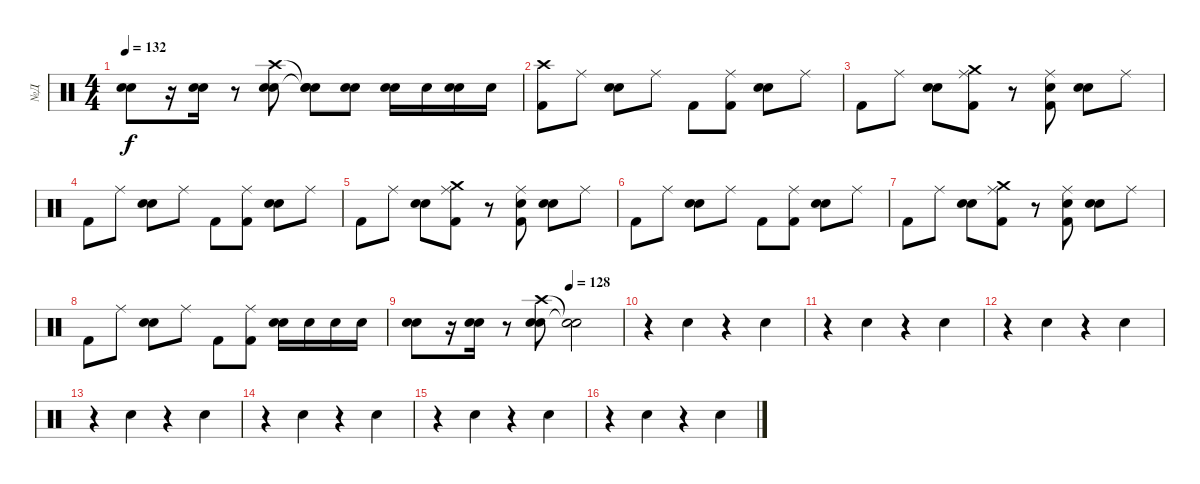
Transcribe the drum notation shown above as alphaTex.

\track ("№Д" "№Д") {instrument percussion}
\staff {score}
\articulation defaults
\ts (4 4)
\tempo 132
\clef neutral
\ks c
("Snare (hit) 2" "Electric Snare (hit)").8{dy f} r.16 ("Snare (hit) 2" "Electric Snare (hit)").16 r.8 ("Crash high (hit)" "Snare (hit) 2" "Electric Snare (hit)").8 ("Snare (hit)"{t} "Snare (hit)"{t} "Snare (hit) 2").8 ("Hand Clap (hit)" "Snare (hit) 2").8 ("Hand Clap (hit)" "Snare (hit) 2").16 "Snare (hit) 2".16 ("Hand Clap (hit)" "Snare (hit) 2").16 "Snare (hit) 2".16 |
("Crash high (hit)" "Kick (hit) 2").8 "Ride (middle)".8 ("Hand Clap (hit)" "Snare (hit) 2").8 "Ride (middle)".8 "Kick (hit) 2".8 ("Ride (middle)" "Kick (hit) 2").8 ("Hand Clap (hit)" "Snare (hit) 2").8 "Ride (middle)".8 |
"Kick (hit) 2".8 "Ride (middle)".8 ("Hand Clap (hit)" "Snare (hit) 2").8 ("Crash medium (hit)" "Ride (middle)" "Kick (hit) 2").8 r.8 ("Hand Clap (hit)" "Ride (middle)" "Kick (hit) 2").8 ("Hand Clap (hit)" "Snare (hit) 2").8 "Ride (middle)".8 |
"Kick (hit) 2".8 "Ride (middle)".8 ("Hand Clap (hit)" "Snare (hit) 2").8 "Ride (middle)".8 "Kick (hit) 2".8 ("Ride (middle)" "Kick (hit) 2").8 ("Hand Clap (hit)" "Snare (hit) 2").8 "Ride (middle)".8 |
"Kick (hit) 2".8 "Ride (middle)".8 ("Hand Clap (hit)" "Snare (hit) 2").8 ("Crash medium (hit)" "Ride (middle)" "Kick (hit) 2").8 r.8 ("Hand Clap (hit)" "Ride (middle)" "Kick (hit) 2").8 ("Hand Clap (hit)" "Snare (hit) 2").8 "Ride (middle)".8 |
"Kick (hit) 2".8 "Ride (middle)".8 ("Hand Clap (hit)" "Snare (hit) 2").8 "Ride (middle)".8 "Kick (hit) 2".8 ("Ride (middle)" "Kick (hit) 2").8 ("Hand Clap (hit)" "Snare (hit) 2").8 "Ride (middle)".8 |
"Kick (hit) 2".8 "Ride (middle)".8 ("Hand Clap (hit)" "Snare (hit) 2").8 ("Crash medium (hit)" "Ride (middle)" "Kick (hit) 2").8 r.8 ("Hand Clap (hit)" "Ride (middle)" "Kick (hit) 2").8 ("Hand Clap (hit)" "Snare (hit) 2").8 "Ride (middle)".8 |
"Kick (hit) 2".8 "Ride (middle)".8 ("Hand Clap (hit)" "Snare (hit) 2").8 "Ride (middle)".8 "Kick (hit) 2".8 ("Ride (middle)" "Kick (hit) 2").8 ("Hand Clap (hit)" "Snare (hit) 2").16 "Snare (hit) 2".16 "Snare (hit) 2".16 "Snare (hit) 2".16 |
\tempo (128 0.75)
("Snare (hit) 2" "Electric Snare (hit)").8 r.16 ("Snare (hit) 2" "Electric Snare (hit)").16 r.8 ("Crash high (hit)" "Snare (hit) 2" "Electric Snare (hit)").8 ("Snare (hit)"{t} "Snare (hit)"{t}).2 |
r.4 "Hand Clap (hit)".4 r.4 "Hand Clap (hit)".4 |
r.4 "Hand Clap (hit)".4 r.4 "Hand Clap (hit)".4 |
r.4 "Hand Clap (hit)".4 r.4 "Hand Clap (hit)".4 |
r.4 "Hand Clap (hit)".4 r.4 "Hand Clap (hit)".4 |
r.4 "Hand Clap (hit)".4 r.4 "Hand Clap (hit)".4 |
r.4 "Hand Clap (hit)".4 r.4 "Hand Clap (hit)".4 |
r.4 "Hand Clap (hit)".4 r.4 "Hand Clap (hit)".4
